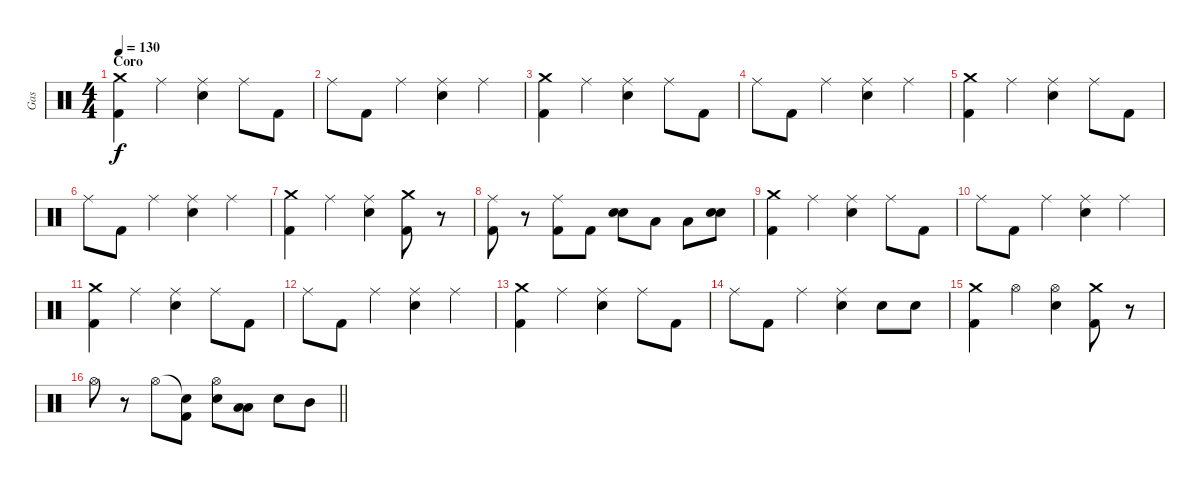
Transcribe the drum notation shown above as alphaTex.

\track ("Gas" "Gas") {instrument percussion}
\staff {score}
\articulation defaults
\ts (4 4)
\section ("" "Coro")
\tempo 130
\clef neutral
\ks c
("Crash medium (hit)" "Kick (hit) 2").4{dy f} "Ride (middle)".4 ("Ride (middle)" "Electric Snare (hit)").4 "Ride (middle)".8 "Kick (hit) 2".8 |
"Ride (middle)".8 "Kick (hit) 2".8 "Ride (middle)".4 ("Ride (middle)" "Electric Snare (hit)").4 "Ride (middle)".4 |
("Crash medium (hit)" "Kick (hit) 2").4 "Ride (middle)".4 ("Ride (middle)" "Electric Snare (hit)").4 "Ride (middle)".8 "Kick (hit) 2".8 |
"Ride (middle)".8 "Kick (hit) 2".8 "Ride (middle)".4 ("Ride (middle)" "Electric Snare (hit)").4 "Ride (middle)".4 |
("Crash medium (hit)" "Kick (hit) 2").4 "Ride (middle)".4 ("Ride (middle)" "Electric Snare (hit)").4 "Ride (middle)".8 "Kick (hit) 2".8 |
"Ride (middle)".8 "Kick (hit) 2".8 "Ride (middle)".4 ("Ride (middle)" "Electric Snare (hit)").4 "Ride (middle)".4 |
("Crash medium (hit)" "Kick (hit) 2").4 "Ride (middle)".4 ("Ride (middle)" "Electric Snare (hit)").4 ("Crash medium (hit)" "Kick (hit) 2").8 r.8 |
("Ride (middle)" "Kick (hit) 2").8 r.8 ("Ride (middle)" "Kick (hit) 2").8 "Kick (hit) 2".8 ("Electric Snare (hit)" "Electric Snare (hit)").8{bd 60} "Low Tom (hit)".8 "Low Tom (hit)".8 ("Electric Snare (hit)" "Electric Snare (hit)").8{bd 60} |
("Crash medium (hit)" "Kick (hit) 2").4 "Ride (middle)".4 ("Ride (middle)" "Electric Snare (hit)").4 "Ride (middle)".8 "Kick (hit) 2".8 |
"Ride (middle)".8 "Kick (hit) 2".8 "Ride (middle)".4 ("Ride (middle)" "Electric Snare (hit)").4 "Ride (middle)".4 |
("Crash medium (hit)" "Kick (hit) 2").4 "Ride (middle)".4 ("Ride (middle)" "Electric Snare (hit)").4 "Ride (middle)".8 "Kick (hit) 2".8 |
"Ride (middle)".8 "Kick (hit) 2".8 "Ride (middle)".4 ("Ride (middle)" "Electric Snare (hit)").4 "Ride (middle)".4 |
("Crash medium (hit)" "Kick (hit) 2").4 "Ride (middle)".4 ("Ride (middle)" "Electric Snare (hit)").4 "Ride (middle)".8 "Kick (hit) 2".8 |
"Ride (middle)".8 "Kick (hit) 2".8 "Ride (middle)".4 ("Ride (middle)" "Electric Snare (hit)").4 "Electric Snare (hit)".8 "Electric Snare (hit)".8 |
("Crash medium (hit)" "Kick (hit) 2").4 "Hi-Hat (open)".4 ("Hi-Hat (open)" "Electric Snare (hit)").4 ("Crash medium (hit)" "Kick (hit) 2").8 r.8 |
\barLineRight lightlight "Hi-Hat (open)".8
r.8 "Hi-Hat (open)".8 ("Snare (hit)"{t} "Kick (hit) 2").8 ("Hi-Hat (open)" "Electric Snare (hit)").8 ("Low Tom (hit)" "Low Tom (hit)").8{bd 60} "Electric Snare (hit)".8 "Mid Tom (hit)".8
